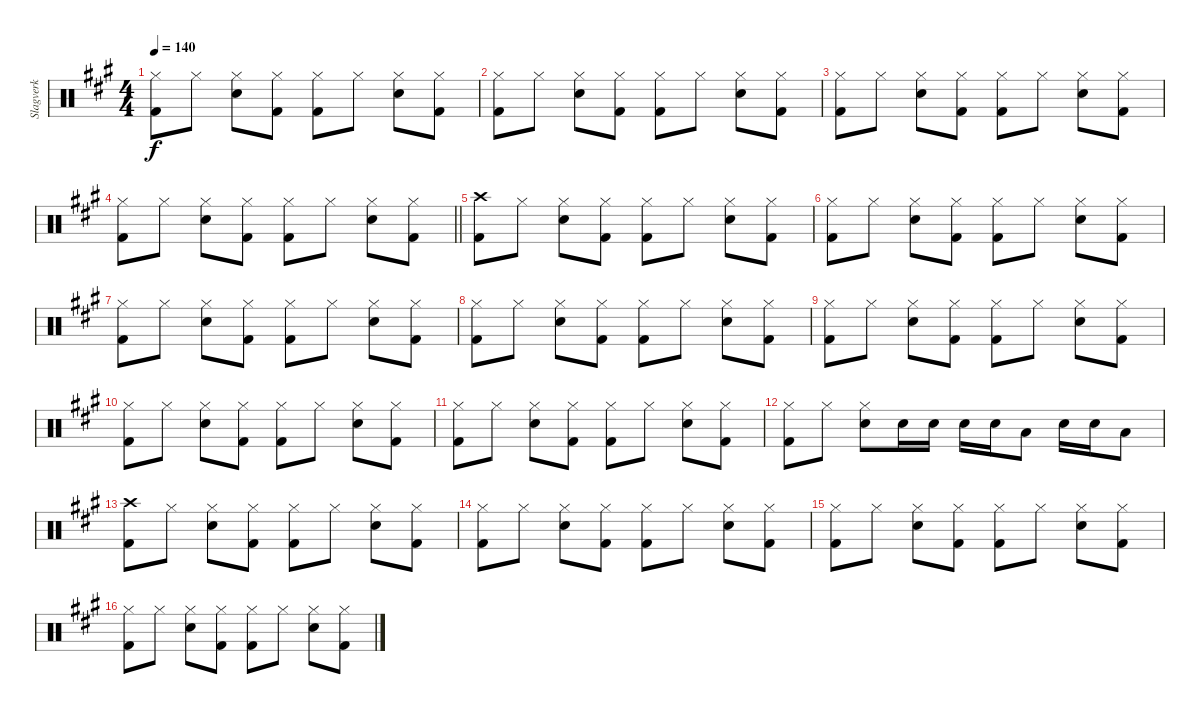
\track ("Slagverk" "Slagverk") {instrument percussion}
\staff {score}
\articulation defaults
\ts (4 4)
\tempo 140
\clef neutral
\ks a
("Hi-Hat (closed)" "Kick (hit) 2").8{dy f} "Hi-Hat (closed)".8 ("Hi-Hat (closed)" "Electric Snare (hit)").8 ("Hi-Hat (closed)" "Kick (hit) 2").8 ("Hi-Hat (closed)" "Kick (hit) 2").8 "Hi-Hat (closed)".8 ("Hi-Hat (closed)" "Electric Snare (hit)").8 ("Hi-Hat (closed)" "Kick (hit) 2").8 |
("Hi-Hat (closed)" "Kick (hit) 2").8 "Hi-Hat (closed)".8 ("Hi-Hat (closed)" "Electric Snare (hit)").8 ("Hi-Hat (closed)" "Kick (hit) 2").8 ("Hi-Hat (closed)" "Kick (hit) 2").8 "Hi-Hat (closed)".8 ("Hi-Hat (closed)" "Electric Snare (hit)").8 ("Hi-Hat (closed)" "Kick (hit) 2").8 |
("Hi-Hat (closed)" "Kick (hit) 2").8 "Hi-Hat (closed)".8 ("Hi-Hat (closed)" "Electric Snare (hit)").8 ("Hi-Hat (closed)" "Kick (hit) 2").8 ("Hi-Hat (closed)" "Kick (hit) 2").8 "Hi-Hat (closed)".8 ("Hi-Hat (closed)" "Electric Snare (hit)").8 ("Hi-Hat (closed)" "Kick (hit) 2").8 |
\barLineRight lightlight
("Hi-Hat (closed)" "Kick (hit) 2").8 "Hi-Hat (closed)".8 ("Hi-Hat (closed)" "Electric Snare (hit)").8 ("Hi-Hat (closed)" "Kick (hit) 2").8 ("Hi-Hat (closed)" "Kick (hit) 2").8 "Hi-Hat (closed)".8 ("Hi-Hat (closed)" "Electric Snare (hit)").8 ("Hi-Hat (closed)" "Kick (hit) 2").8 |
("Crash high (hit)" "Kick (hit) 2").8 "Hi-Hat (closed)".8 ("Hi-Hat (closed)" "Electric Snare (hit)").8 ("Hi-Hat (closed)" "Kick (hit) 2").8 ("Hi-Hat (closed)" "Kick (hit) 2").8 "Hi-Hat (closed)".8 ("Hi-Hat (closed)" "Electric Snare (hit)").8 ("Hi-Hat (closed)" "Kick (hit) 2").8 |
("Hi-Hat (closed)" "Kick (hit) 2").8 "Hi-Hat (closed)".8 ("Hi-Hat (closed)" "Electric Snare (hit)").8 ("Hi-Hat (closed)" "Kick (hit) 2").8 ("Hi-Hat (closed)" "Kick (hit) 2").8 "Hi-Hat (closed)".8 ("Hi-Hat (closed)" "Electric Snare (hit)").8 ("Hi-Hat (closed)" "Kick (hit) 2").8 |
("Hi-Hat (closed)" "Kick (hit) 2").8 "Hi-Hat (closed)".8 ("Hi-Hat (closed)" "Electric Snare (hit)").8 ("Hi-Hat (closed)" "Kick (hit) 2").8 ("Hi-Hat (closed)" "Kick (hit) 2").8 "Hi-Hat (closed)".8 ("Hi-Hat (closed)" "Electric Snare (hit)").8 ("Hi-Hat (closed)" "Kick (hit) 2").8 |
("Hi-Hat (closed)" "Kick (hit) 2").8 "Hi-Hat (closed)".8 ("Hi-Hat (closed)" "Electric Snare (hit)").8 ("Hi-Hat (closed)" "Kick (hit) 2").8 ("Hi-Hat (closed)" "Kick (hit) 2").8 "Hi-Hat (closed)".8 ("Hi-Hat (closed)" "Electric Snare (hit)").8 ("Hi-Hat (closed)" "Kick (hit) 2").8 |
("Hi-Hat (closed)" "Kick (hit) 2").8 "Hi-Hat (closed)".8 ("Hi-Hat (closed)" "Electric Snare (hit)").8 ("Hi-Hat (closed)" "Kick (hit) 2").8 ("Hi-Hat (closed)" "Kick (hit) 2").8 "Hi-Hat (closed)".8 ("Hi-Hat (closed)" "Electric Snare (hit)").8 ("Hi-Hat (closed)" "Kick (hit) 2").8 |
("Hi-Hat (closed)" "Kick (hit) 2").8 "Hi-Hat (closed)".8 ("Hi-Hat (closed)" "Electric Snare (hit)").8 ("Hi-Hat (closed)" "Kick (hit) 2").8 ("Hi-Hat (closed)" "Kick (hit) 2").8 "Hi-Hat (closed)".8 ("Hi-Hat (closed)" "Electric Snare (hit)").8 ("Hi-Hat (closed)" "Kick (hit) 2").8 |
("Hi-Hat (closed)" "Kick (hit) 2").8 "Hi-Hat (closed)".8 ("Hi-Hat (closed)" "Electric Snare (hit)").8 ("Hi-Hat (closed)" "Kick (hit) 2").8 ("Hi-Hat (closed)" "Kick (hit) 2").8 "Hi-Hat (closed)".8 ("Hi-Hat (closed)" "Electric Snare (hit)").8 ("Hi-Hat (closed)" "Kick (hit) 2").8 |
("Hi-Hat (closed)" "Kick (hit) 2").8 "Hi-Hat (closed)".8 ("Hi-Hat (closed)" "Electric Snare (hit)").8 "Electric Snare (hit)".16 "Electric Snare (hit)".16 "Electric Snare (hit)".16 "Electric Snare (hit)".16 "Low Floor Tom (hit)".8 "Electric Snare (hit)".16 "Electric Snare (hit)".16 "Low Floor Tom (hit)".8 |
("Crash high (hit)" "Kick (hit) 2").8 "Hi-Hat (closed)".8 ("Hi-Hat (closed)" "Electric Snare (hit)").8 ("Hi-Hat (closed)" "Kick (hit) 2").8 ("Hi-Hat (closed)" "Kick (hit) 2").8 "Hi-Hat (closed)".8 ("Hi-Hat (closed)" "Electric Snare (hit)").8 ("Hi-Hat (closed)" "Kick (hit) 2").8 |
("Hi-Hat (closed)" "Kick (hit) 2").8 "Hi-Hat (closed)".8 ("Hi-Hat (closed)" "Electric Snare (hit)").8 ("Hi-Hat (closed)" "Kick (hit) 2").8 ("Hi-Hat (closed)" "Kick (hit) 2").8 "Hi-Hat (closed)".8 ("Hi-Hat (closed)" "Electric Snare (hit)").8 ("Hi-Hat (closed)" "Kick (hit) 2").8 |
("Hi-Hat (closed)" "Kick (hit) 2").8 "Hi-Hat (closed)".8 ("Hi-Hat (closed)" "Electric Snare (hit)").8 ("Hi-Hat (closed)" "Kick (hit) 2").8 ("Hi-Hat (closed)" "Kick (hit) 2").8 "Hi-Hat (closed)".8 ("Hi-Hat (closed)" "Electric Snare (hit)").8 ("Hi-Hat (closed)" "Kick (hit) 2").8 |
("Hi-Hat (closed)" "Kick (hit) 2").8 "Hi-Hat (closed)".8 ("Hi-Hat (closed)" "Electric Snare (hit)").8 ("Hi-Hat (closed)" "Kick (hit) 2").8 ("Hi-Hat (closed)" "Kick (hit) 2").8 "Hi-Hat (closed)".8 ("Hi-Hat (closed)" "Electric Snare (hit)").8 ("Hi-Hat (closed)" "Kick (hit) 2").8
